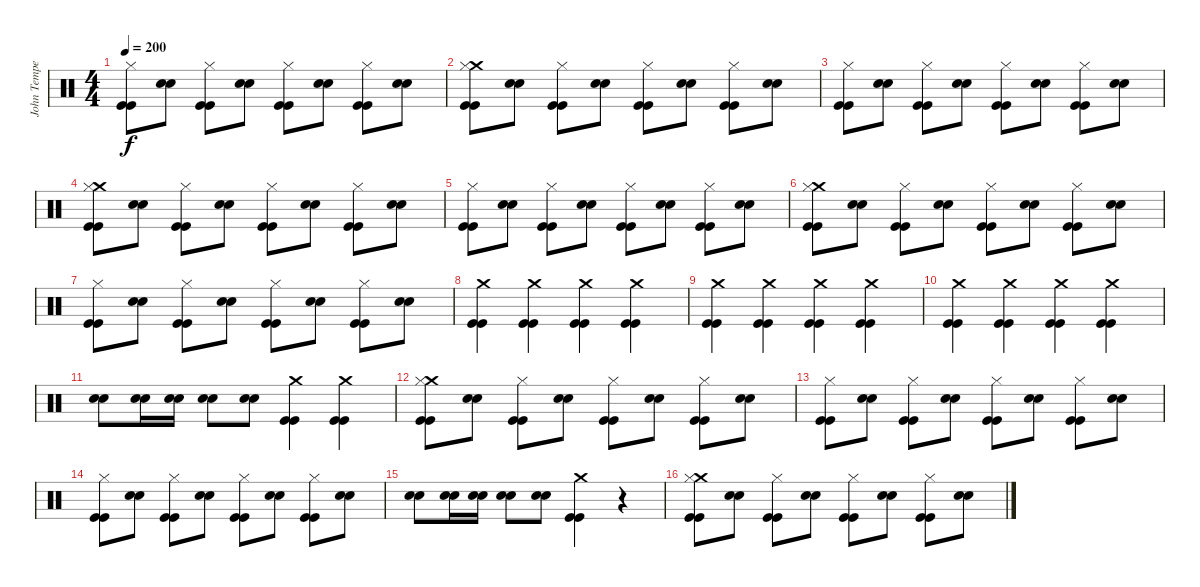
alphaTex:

\track ("John Tempesta" "John Tempe") {instrument percussion}
\staff {score}
\articulation defaults
\ts (4 4)
\tempo 200
\clef neutral
\ks c
("Hi-Hat (closed)" "Kick (hit)" "Kick (hit)").8{dy f} ("Snare (hit) 2" "Snare (hit) 2").8 ("Hi-Hat (closed)" "Kick (hit)" "Kick (hit)").8 ("Snare (hit) 2" "Snare (hit) 2").8 ("Hi-Hat (closed)" "Kick (hit)" "Kick (hit)").8 ("Snare (hit) 2" "Snare (hit) 2").8 ("Hi-Hat (closed)" "Kick (hit)" "Kick (hit)").8 ("Snare (hit) 2" "Snare (hit) 2").8 |
("Crash medium (hit)" "Hi-Hat (closed)" "Kick (hit)" "Kick (hit)").8 ("Snare (hit) 2" "Snare (hit) 2").8 ("Hi-Hat (closed)" "Kick (hit)" "Kick (hit)").8 ("Snare (hit) 2" "Snare (hit) 2").8 ("Hi-Hat (closed)" "Kick (hit)" "Kick (hit)").8 ("Snare (hit) 2" "Snare (hit) 2").8 ("Hi-Hat (closed)" "Kick (hit)" "Kick (hit)").8 ("Snare (hit) 2" "Snare (hit) 2").8 |
("Hi-Hat (closed)" "Kick (hit)" "Kick (hit)").8 ("Snare (hit) 2" "Snare (hit) 2").8 ("Hi-Hat (closed)" "Kick (hit)" "Kick (hit)").8 ("Snare (hit) 2" "Snare (hit) 2").8 ("Hi-Hat (closed)" "Kick (hit)" "Kick (hit)").8 ("Snare (hit) 2" "Snare (hit) 2").8 ("Hi-Hat (closed)" "Kick (hit)" "Kick (hit)").8 ("Snare (hit) 2" "Snare (hit) 2").8 |
("Crash medium (hit)" "Hi-Hat (closed)" "Kick (hit)" "Kick (hit)").8 ("Snare (hit) 2" "Snare (hit) 2").8 ("Hi-Hat (closed)" "Kick (hit)" "Kick (hit)").8 ("Snare (hit) 2" "Snare (hit) 2").8 ("Hi-Hat (closed)" "Kick (hit)" "Kick (hit)").8 ("Snare (hit) 2" "Snare (hit) 2").8 ("Hi-Hat (closed)" "Kick (hit)" "Kick (hit)").8 ("Snare (hit) 2" "Snare (hit) 2").8 |
("Hi-Hat (closed)" "Kick (hit)" "Kick (hit)").8 ("Snare (hit) 2" "Snare (hit) 2").8 ("Hi-Hat (closed)" "Kick (hit)" "Kick (hit)").8 ("Snare (hit) 2" "Snare (hit) 2").8 ("Hi-Hat (closed)" "Kick (hit)" "Kick (hit)").8 ("Snare (hit) 2" "Snare (hit) 2").8 ("Hi-Hat (closed)" "Kick (hit)" "Kick (hit)").8 ("Snare (hit) 2" "Snare (hit) 2").8 |
("Crash medium (hit)" "Hi-Hat (closed)" "Kick (hit)" "Kick (hit)").8 ("Snare (hit) 2" "Snare (hit) 2").8 ("Hi-Hat (closed)" "Kick (hit)" "Kick (hit)").8 ("Snare (hit) 2" "Snare (hit) 2").8 ("Hi-Hat (closed)" "Kick (hit)" "Kick (hit)").8 ("Snare (hit) 2" "Snare (hit) 2").8 ("Hi-Hat (closed)" "Kick (hit)" "Kick (hit)").8 ("Snare (hit) 2" "Snare (hit) 2").8 |
("Hi-Hat (closed)" "Kick (hit)" "Kick (hit)").8 ("Snare (hit) 2" "Snare (hit) 2").8 ("Hi-Hat (closed)" "Kick (hit)" "Kick (hit)").8 ("Snare (hit) 2" "Snare (hit) 2").8 ("Hi-Hat (closed)" "Kick (hit)" "Kick (hit)").8 ("Snare (hit) 2" "Snare (hit) 2").8 ("Hi-Hat (closed)" "Kick (hit)" "Kick (hit)").8 ("Snare (hit) 2" "Snare (hit) 2").8 |
("Crash medium (hit)" "Kick (hit)" "Kick (hit)").4 ("Crash medium (hit)" "Kick (hit)" "Kick (hit)").4 ("Crash medium (hit)" "Kick (hit)" "Kick (hit)").4 ("Crash medium (hit)" "Kick (hit)" "Kick (hit)").4 |
("Crash medium (hit)" "Kick (hit)" "Kick (hit)").4 ("Crash medium (hit)" "Kick (hit)" "Kick (hit)").4 ("Crash medium (hit)" "Kick (hit)" "Kick (hit)").4 ("Crash medium (hit)" "Kick (hit)" "Kick (hit)").4 |
("Crash medium (hit)" "Kick (hit)" "Kick (hit)").4 ("Crash medium (hit)" "Kick (hit)" "Kick (hit)").4 ("Crash medium (hit)" "Kick (hit)" "Kick (hit)").4 ("Crash medium (hit)" "Kick (hit)" "Kick (hit)").4 |
("Snare (hit) 2" "Snare (hit) 2").8 ("Snare (hit) 2" "Snare (hit) 2").16 ("Snare (hit) 2" "Snare (hit) 2").16 ("Snare (hit) 2" "Snare (hit) 2").8 ("Snare (hit) 2" "Snare (hit) 2").8 ("Crash medium (hit)" "Kick (hit)" "Kick (hit)").4 ("Crash medium (hit)" "Kick (hit)" "Kick (hit)").4 |
("Crash medium (hit)" "Hi-Hat (closed)" "Kick (hit)" "Kick (hit)").8 ("Snare (hit) 2" "Snare (hit) 2").8 ("Hi-Hat (closed)" "Kick (hit)" "Kick (hit)").8 ("Snare (hit) 2" "Snare (hit) 2").8 ("Hi-Hat (closed)" "Kick (hit)" "Kick (hit)").8 ("Snare (hit) 2" "Snare (hit) 2").8 ("Hi-Hat (closed)" "Kick (hit)" "Kick (hit)").8 ("Snare (hit) 2" "Snare (hit) 2").8 |
("Hi-Hat (closed)" "Kick (hit)" "Kick (hit)").8 ("Snare (hit) 2" "Snare (hit) 2").8 ("Hi-Hat (closed)" "Kick (hit)" "Kick (hit)").8 ("Snare (hit) 2" "Snare (hit) 2").8 ("Hi-Hat (closed)" "Kick (hit)" "Kick (hit)").8 ("Snare (hit) 2" "Snare (hit) 2").8 ("Hi-Hat (closed)" "Kick (hit)" "Kick (hit)").8 ("Snare (hit) 2" "Snare (hit) 2").8 |
("Hi-Hat (closed)" "Kick (hit)" "Kick (hit)").8 ("Snare (hit) 2" "Snare (hit) 2").8 ("Hi-Hat (closed)" "Kick (hit)" "Kick (hit)").8 ("Snare (hit) 2" "Snare (hit) 2").8 ("Hi-Hat (closed)" "Kick (hit)" "Kick (hit)").8 ("Snare (hit) 2" "Snare (hit) 2").8 ("Hi-Hat (closed)" "Kick (hit)" "Kick (hit)").8 ("Snare (hit) 2" "Snare (hit) 2").8 |
("Snare (hit) 2" "Snare (hit) 2").8 ("Snare (hit) 2" "Snare (hit) 2").16 ("Snare (hit) 2" "Snare (hit) 2").16 ("Snare (hit) 2" "Snare (hit) 2").8 ("Snare (hit) 2" "Snare (hit) 2").8 ("Crash medium (hit)" "Kick (hit)" "Kick (hit)").4 r.4 |
("Crash medium (hit)" "Hi-Hat (closed)" "Kick (hit)" "Kick (hit)").8 ("Snare (hit) 2" "Snare (hit) 2").8 ("Hi-Hat (closed)" "Kick (hit)" "Kick (hit)").8 ("Snare (hit) 2" "Snare (hit) 2").8 ("Hi-Hat (closed)" "Kick (hit)" "Kick (hit)").8 ("Snare (hit) 2" "Snare (hit) 2").8 ("Hi-Hat (closed)" "Kick (hit)" "Kick (hit)").8 ("Snare (hit) 2" "Snare (hit) 2").8
